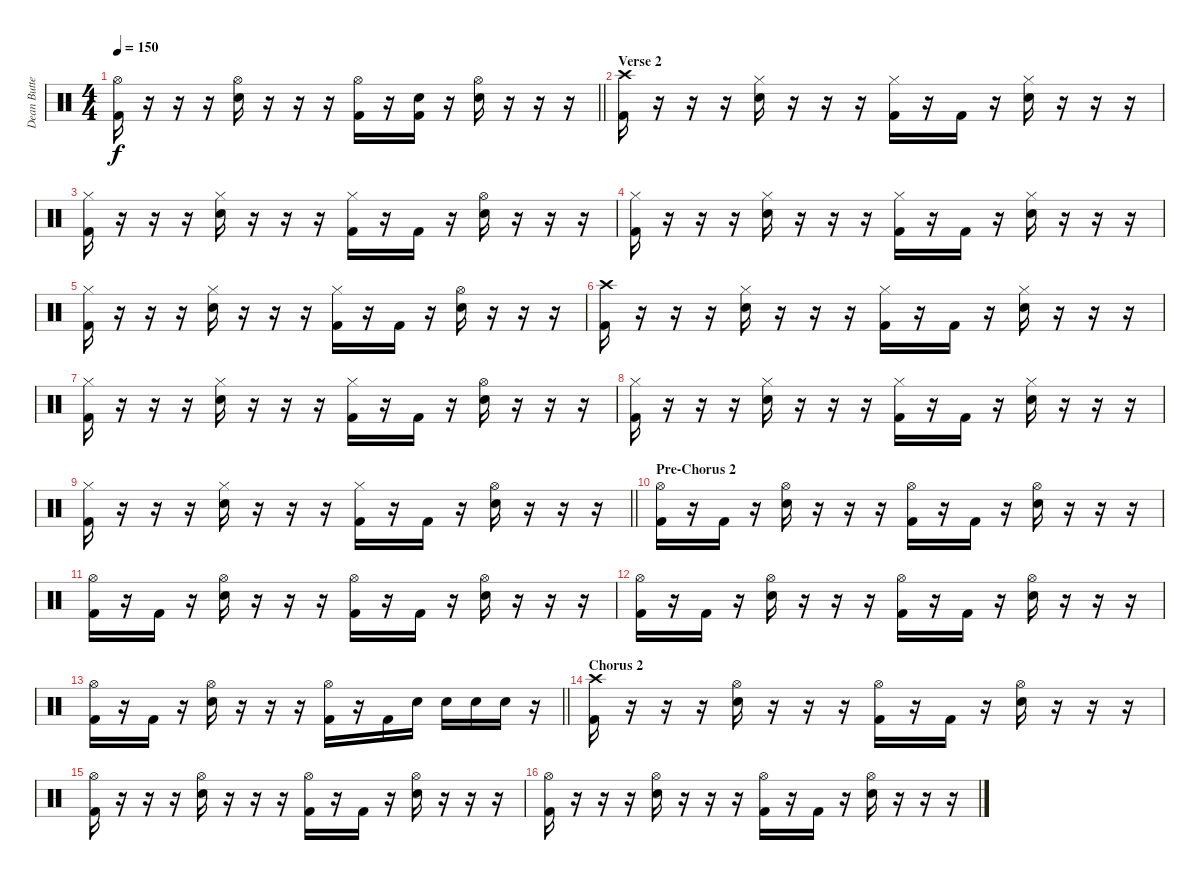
\track ("Dean Butterworth" "Dean Butte") {instrument percussion}
\staff {score}
\articulation defaults
\ts (4 4)
\tempo 150
\clef neutral
\barLineRight lightlight
\ks c
("Hi-Hat (open)" "Kick (hit) 2").16{dy f} r.16 r.16 r.16 ("Hi-Hat (open)" "Electric Snare (hit)").16 r.16 r.16 r.16 ("Hi-Hat (open)" "Kick (hit) 2").16 r.16 ("Electric Snare (hit)" "Kick (hit) 2").16 r.16 ("Hi-Hat (open)" "Electric Snare (hit)").16 r.16 r.16 r.16 |
\section ("" "Verse 2")
("Crash high (hit)" "Kick (hit) 2").16 r.16 r.16 r.16 ("Hi-Hat (closed)" "Snare (hit) 2").16 r.16 r.16 r.16 ("Hi-Hat (closed)" "Kick (hit) 2").16 r.16 "Kick (hit) 2".16 r.16 ("Hi-Hat (closed)" "Snare (hit) 2").16 r.16 r.16 r.16 |
("Hi-Hat (closed)" "Kick (hit) 2").16 r.16 r.16 r.16 ("Hi-Hat (closed)" "Snare (hit) 2").16 r.16 r.16 r.16 ("Hi-Hat (closed)" "Kick (hit) 2").16 r.16 "Kick (hit) 2".16 r.16 ("Hi-Hat (open)" "Snare (hit) 2").16 r.16 r.16 r.16 |
("Hi-Hat (closed)" "Kick (hit) 2").16 r.16 r.16 r.16 ("Hi-Hat (closed)" "Snare (hit) 2").16 r.16 r.16 r.16 ("Hi-Hat (closed)" "Kick (hit) 2").16 r.16 "Kick (hit) 2".16 r.16 ("Hi-Hat (closed)" "Snare (hit) 2").16 r.16 r.16 r.16 |
("Hi-Hat (closed)" "Kick (hit) 2").16 r.16 r.16 r.16 ("Hi-Hat (closed)" "Snare (hit) 2").16 r.16 r.16 r.16 ("Hi-Hat (closed)" "Kick (hit) 2").16 r.16 "Kick (hit) 2".16 r.16 ("Hi-Hat (open)" "Snare (hit) 2").16 r.16 r.16 r.16 |
("Crash high (hit)" "Kick (hit) 2").16 r.16 r.16 r.16 ("Hi-Hat (closed)" "Snare (hit) 2").16 r.16 r.16 r.16 ("Hi-Hat (closed)" "Kick (hit) 2").16 r.16 "Kick (hit) 2".16 r.16 ("Hi-Hat (closed)" "Snare (hit) 2").16 r.16 r.16 r.16 |
("Hi-Hat (closed)" "Kick (hit) 2").16 r.16 r.16 r.16 ("Hi-Hat (closed)" "Snare (hit) 2").16 r.16 r.16 r.16 ("Hi-Hat (closed)" "Kick (hit) 2").16 r.16 "Kick (hit) 2".16 r.16 ("Hi-Hat (open)" "Snare (hit) 2").16 r.16 r.16 r.16 |
("Hi-Hat (closed)" "Kick (hit) 2").16 r.16 r.16 r.16 ("Hi-Hat (closed)" "Snare (hit) 2").16 r.16 r.16 r.16 ("Hi-Hat (closed)" "Kick (hit) 2").16 r.16 "Kick (hit) 2".16 r.16 ("Hi-Hat (closed)" "Snare (hit) 2").16 r.16 r.16 r.16 |
\barLineRight lightlight
("Hi-Hat (closed)" "Kick (hit) 2").16 r.16 r.16 r.16 ("Hi-Hat (closed)" "Snare (hit) 2").16 r.16 r.16 r.16 ("Hi-Hat (closed)" "Kick (hit) 2").16 r.16 "Kick (hit) 2".16 r.16 ("Hi-Hat (open)" "Snare (hit) 2").16 r.16 r.16 r.16 |
\section ("" "Pre-Chorus 2")
("Hi-Hat (open)" "Kick (hit) 2").16 r.16 "Kick (hit) 2".16 r.16 ("Hi-Hat (open)" "Snare (hit) 2").16 r.16 r.16 r.16 ("Hi-Hat (open)" "Kick (hit) 2").16 r.16 "Kick (hit) 2".16 r.16 ("Hi-Hat (open)" "Snare (hit) 2").16 r.16 r.16 r.16 |
("Hi-Hat (open)" "Kick (hit) 2").16 r.16 "Kick (hit) 2".16 r.16 ("Hi-Hat (open)" "Snare (hit) 2").16 r.16 r.16 r.16 ("Hi-Hat (open)" "Kick (hit) 2").16 r.16 "Kick (hit) 2".16 r.16 ("Hi-Hat (open)" "Snare (hit) 2").16 r.16 r.16 r.16 |
("Hi-Hat (open)" "Kick (hit) 2").16 r.16 "Kick (hit) 2".16 r.16 ("Hi-Hat (open)" "Snare (hit) 2").16 r.16 r.16 r.16 ("Hi-Hat (open)" "Kick (hit) 2").16 r.16 "Kick (hit) 2".16 r.16 ("Hi-Hat (open)" "Snare (hit) 2").16 r.16 r.16 r.16 |
\barLineRight lightlight
("Hi-Hat (open)" "Kick (hit) 2").16 r.16 "Kick (hit) 2".16 r.16 ("Hi-Hat (open)" "Snare (hit) 2").16 r.16 r.16 r.16 ("Hi-Hat (open)" "Kick (hit) 2").16 r.16 "Kick (hit) 2".16 "Snare (hit) 2".16 "Snare (hit) 2".16 "Snare (hit) 2".16 "Snare (hit) 2".16 r.16 |
\section ("" "Chorus 2")
("Crash high (hit)" "Kick (hit) 2").16 r.16 r.16 r.16 ("Hi-Hat (open)" "Electric Snare (hit)").16 r.16 r.16 r.16 ("Hi-Hat (open)" "Kick (hit) 2").16 r.16 "Kick (hit) 2".16 r.16 ("Hi-Hat (open)" "Electric Snare (hit)").16 r.16 r.16 r.16 |
("Hi-Hat (open)" "Kick (hit) 2").16 r.16 r.16 r.16 ("Hi-Hat (open)" "Electric Snare (hit)").16 r.16 r.16 r.16 ("Hi-Hat (open)" "Kick (hit) 2").16 r.16 "Kick (hit) 2".16 r.16 ("Hi-Hat (open)" "Electric Snare (hit)").16 r.16 r.16 r.16 |
("Hi-Hat (open)" "Kick (hit) 2").16 r.16 r.16 r.16 ("Hi-Hat (open)" "Electric Snare (hit)").16 r.16 r.16 r.16 ("Hi-Hat (open)" "Kick (hit) 2").16 r.16 "Kick (hit) 2".16 r.16 ("Hi-Hat (open)" "Electric Snare (hit)").16 r.16 r.16 r.16
